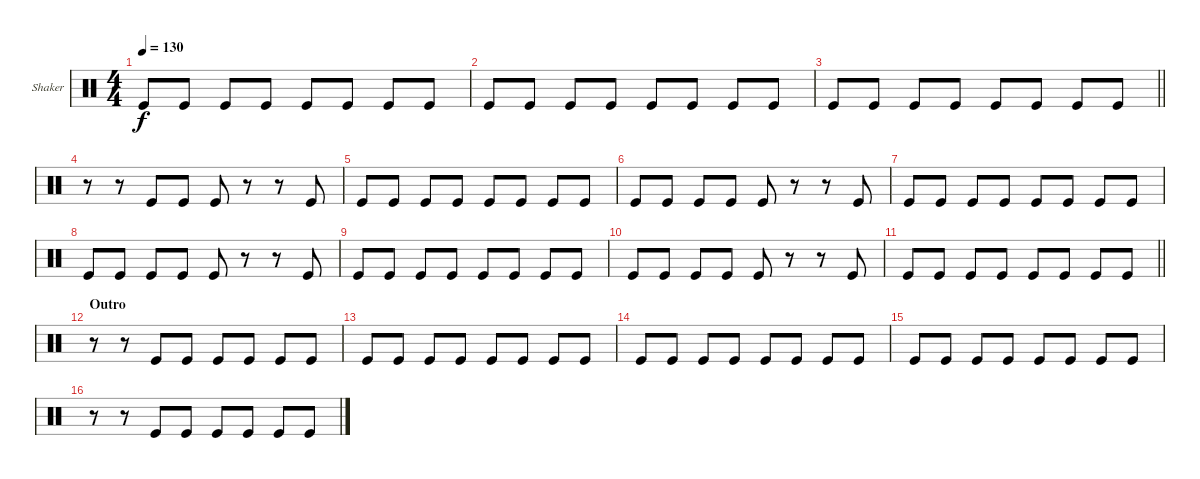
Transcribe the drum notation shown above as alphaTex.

\defaultSystemsLayout 4
\bracketExtendMode groupsimilarinstruments
\firstSystemTrackNameOrientation horizontal
\otherSystemsTrackNameOrientation horizontal
\track ("Shaker" "Shaker") {instrument percussion}
\staff {score}
\articulation defaults
\ts (4 4)
\tempo 130
\clef neutral
\scale
0.333333
\ks aminor "Kick (hit)".8{dy f} "Kick (hit)".8 "Kick (hit)".8 "Kick (hit)".8 "Kick (hit)".8 "Kick (hit)".8 "Kick (hit)".8 "Kick (hit)".8
|
\scale
0.333333 "Kick (hit)".8 "Kick (hit)".8 "Kick (hit)".8 "Kick (hit)".8 "Kick (hit)".8 "Kick (hit)".8 "Kick (hit)".8 "Kick (hit)".8 |
\scale
0.333333
\barLineRight lightlight "Kick (hit)".8 "Kick (hit)".8 "Kick (hit)".8 "Kick (hit)".8 "Kick (hit)".8 "Kick (hit)".8 "Kick (hit)".8 "Kick (hit)".8
|
\scale
0.333333 r.8 r.8 "Kick (hit)".8 "Kick (hit)".8 "Kick (hit)".8 r.8 r.8 "Kick (hit)".8 |
\scale
0.333333 "Kick (hit)".8 "Kick (hit)".8 "Kick (hit)".8 "Kick (hit)".8 "Kick (hit)".8 "Kick (hit)".8 "Kick (hit)".8 "Kick (hit)".8 |
\scale
0.333333 "Kick (hit)".8 "Kick (hit)".8 "Kick (hit)".8 "Kick (hit)".8 "Kick (hit)".8 r.8 r.8 "Kick (hit)".8 |
\scale
0.333333 "Kick (hit)".8 "Kick (hit)".8 "Kick (hit)".8 "Kick (hit)".8 "Kick (hit)".8 "Kick (hit)".8 "Kick (hit)".8 "Kick (hit)".8 |
\scale
0.333333 "Kick (hit)".8 "Kick (hit)".8 "Kick (hit)".8 "Kick (hit)".8 "Kick (hit)".8 r.8 r.8 "Kick (hit)".8 |
\scale
0.333333 "Kick (hit)".8 "Kick (hit)".8 "Kick (hit)".8 "Kick (hit)".8 "Kick (hit)".8 "Kick (hit)".8 "Kick (hit)".8 "Kick (hit)".8 |
\scale
0.333333 "Kick (hit)".8 "Kick (hit)".8 "Kick (hit)".8 "Kick (hit)".8 "Kick (hit)".8 r.8 r.8 "Kick (hit)".8 |
\scale
0.333333
\barLineRight lightlight "Kick (hit)".8 "Kick (hit)".8 "Kick (hit)".8 "Kick (hit)".8 "Kick (hit)".8 "Kick (hit)".8 "Kick (hit)".8 "Kick (hit)".8
|
\section ("" "Outro")
\scale
0.333333 r.8 r.8 "Kick (hit)".8 "Kick (hit)".8 "Kick (hit)".8 "Kick (hit)".8 "Kick (hit)".8 "Kick (hit)".8 |
\scale
0.333333 "Kick (hit)".8 "Kick (hit)".8 "Kick (hit)".8 "Kick (hit)".8 "Kick (hit)".8 "Kick (hit)".8 "Kick (hit)".8 "Kick (hit)".8 |
\scale
0.333333 "Kick (hit)".8 "Kick (hit)".8 "Kick (hit)".8 "Kick (hit)".8 "Kick (hit)".8 "Kick (hit)".8 "Kick (hit)".8 "Kick (hit)".8 |
\scale
0.333333 "Kick (hit)".8 "Kick (hit)".8 "Kick (hit)".8 "Kick (hit)".8 "Kick (hit)".8 "Kick (hit)".8 "Kick (hit)".8 "Kick (hit)".8 |
\scale
0.333333 r.8 r.8 "Kick (hit)".8 "Kick (hit)".8 "Kick (hit)".8 "Kick (hit)".8 "Kick (hit)".8 "Kick (hit)".8
